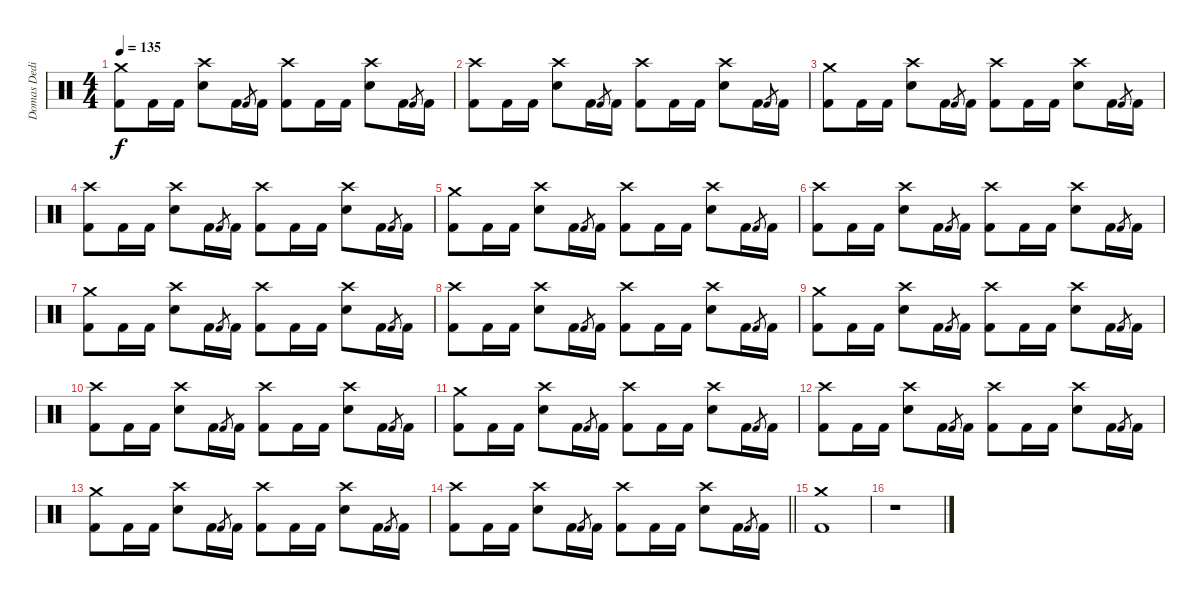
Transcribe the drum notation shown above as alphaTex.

\track ("Domas Dedinas" "Domas Dedi") {instrument percussion}
\staff {score}
\articulation defaults
\ts (4 4)
\tempo 135
\clef neutral
\ks c
("Crash medium (hit)" "Kick (hit) 2").8{dy f} "Kick (hit) 2".16 "Kick (hit) 2".16 ("Crash high (hit)" "Snare (hit) 2").8 "Kick (hit) 2".16 "Kick (hit) 2".8{gr} "Kick (hit) 2".16 ("Crash high (hit)" "Kick (hit) 2").8 "Kick (hit) 2".16 "Kick (hit) 2".16 ("Crash high (hit)" "Snare (hit) 2").8 "Kick (hit) 2".16 "Kick (hit) 2".8{gr} "Kick (hit) 2".16 |
("Crash high (hit)" "Kick (hit) 2").8 "Kick (hit) 2".16 "Kick (hit) 2".16 ("Crash high (hit)" "Snare (hit) 2").8 "Kick (hit) 2".16 "Kick (hit) 2".8{gr} "Kick (hit) 2".16 ("Crash high (hit)" "Kick (hit) 2").8 "Kick (hit) 2".16 "Kick (hit) 2".16 ("Crash high (hit)" "Snare (hit) 2").8 "Kick (hit) 2".16 "Kick (hit) 2".8{gr} "Kick (hit) 2".16 |
("Crash medium (hit)" "Kick (hit) 2").8 "Kick (hit) 2".16 "Kick (hit) 2".16 ("Crash high (hit)" "Snare (hit) 2").8 "Kick (hit) 2".16 "Kick (hit) 2".8{gr} "Kick (hit) 2".16 ("Crash high (hit)" "Kick (hit) 2").8 "Kick (hit) 2".16 "Kick (hit) 2".16 ("Crash high (hit)" "Snare (hit) 2").8 "Kick (hit) 2".16 "Kick (hit) 2".8{gr} "Kick (hit) 2".16 |
("Crash high (hit)" "Kick (hit) 2").8 "Kick (hit) 2".16 "Kick (hit) 2".16 ("Crash high (hit)" "Snare (hit) 2").8 "Kick (hit) 2".16 "Kick (hit) 2".8{gr} "Kick (hit) 2".16 ("Crash high (hit)" "Kick (hit) 2").8 "Kick (hit) 2".16 "Kick (hit) 2".16 ("Crash high (hit)" "Snare (hit) 2").8 "Kick (hit) 2".16 "Kick (hit) 2".8{gr} "Kick (hit) 2".16 |
("Crash medium (hit)" "Kick (hit) 2").8 "Kick (hit) 2".16 "Kick (hit) 2".16 ("Crash high (hit)" "Snare (hit) 2").8 "Kick (hit) 2".16 "Kick (hit) 2".8{gr} "Kick (hit) 2".16 ("Crash high (hit)" "Kick (hit) 2").8 "Kick (hit) 2".16 "Kick (hit) 2".16 ("Crash high (hit)" "Snare (hit) 2").8 "Kick (hit) 2".16 "Kick (hit) 2".8{gr} "Kick (hit) 2".16 |
("Crash high (hit)" "Kick (hit) 2").8 "Kick (hit) 2".16 "Kick (hit) 2".16 ("Crash high (hit)" "Snare (hit) 2").8 "Kick (hit) 2".16 "Kick (hit) 2".8{gr} "Kick (hit) 2".16 ("Crash high (hit)" "Kick (hit) 2").8 "Kick (hit) 2".16 "Kick (hit) 2".16 ("Crash high (hit)" "Snare (hit) 2").8 "Kick (hit) 2".16 "Kick (hit) 2".8{gr} "Kick (hit) 2".16 |
("Crash medium (hit)" "Kick (hit) 2").8 "Kick (hit) 2".16 "Kick (hit) 2".16 ("Crash high (hit)" "Snare (hit) 2").8 "Kick (hit) 2".16 "Kick (hit) 2".8{gr} "Kick (hit) 2".16 ("Crash high (hit)" "Kick (hit) 2").8 "Kick (hit) 2".16 "Kick (hit) 2".16 ("Crash high (hit)" "Snare (hit) 2").8 "Kick (hit) 2".16 "Kick (hit) 2".8{gr} "Kick (hit) 2".16 |
("Crash high (hit)" "Kick (hit) 2").8 "Kick (hit) 2".16 "Kick (hit) 2".16 ("Crash high (hit)" "Snare (hit) 2").8 "Kick (hit) 2".16 "Kick (hit) 2".8{gr} "Kick (hit) 2".16 ("Crash high (hit)" "Kick (hit) 2").8 "Kick (hit) 2".16 "Kick (hit) 2".16 ("Crash high (hit)" "Snare (hit) 2").8 "Kick (hit) 2".16 "Kick (hit) 2".8{gr} "Kick (hit) 2".16 |
("Crash medium (hit)" "Kick (hit) 2").8 "Kick (hit) 2".16 "Kick (hit) 2".16 ("Crash high (hit)" "Snare (hit) 2").8 "Kick (hit) 2".16 "Kick (hit) 2".8{gr} "Kick (hit) 2".16 ("Crash high (hit)" "Kick (hit) 2").8 "Kick (hit) 2".16 "Kick (hit) 2".16 ("Crash high (hit)" "Snare (hit) 2").8 "Kick (hit) 2".16 "Kick (hit) 2".8{gr} "Kick (hit) 2".16 |
("Crash high (hit)" "Kick (hit) 2").8 "Kick (hit) 2".16 "Kick (hit) 2".16 ("Crash high (hit)" "Snare (hit) 2").8 "Kick (hit) 2".16 "Kick (hit) 2".8{gr} "Kick (hit) 2".16 ("Crash high (hit)" "Kick (hit) 2").8 "Kick (hit) 2".16 "Kick (hit) 2".16 ("Crash high (hit)" "Snare (hit) 2").8 "Kick (hit) 2".16 "Kick (hit) 2".8{gr} "Kick (hit) 2".16 |
("Crash medium (hit)" "Kick (hit) 2").8 "Kick (hit) 2".16 "Kick (hit) 2".16 ("Crash high (hit)" "Snare (hit) 2").8 "Kick (hit) 2".16 "Kick (hit) 2".8{gr} "Kick (hit) 2".16 ("Crash high (hit)" "Kick (hit) 2").8 "Kick (hit) 2".16 "Kick (hit) 2".16 ("Crash high (hit)" "Snare (hit) 2").8 "Kick (hit) 2".16 "Kick (hit) 2".8{gr} "Kick (hit) 2".16 |
("Crash high (hit)" "Kick (hit) 2").8 "Kick (hit) 2".16 "Kick (hit) 2".16 ("Crash high (hit)" "Snare (hit) 2").8 "Kick (hit) 2".16 "Kick (hit) 2".8{gr} "Kick (hit) 2".16 ("Crash high (hit)" "Kick (hit) 2").8 "Kick (hit) 2".16 "Kick (hit) 2".16 ("Crash high (hit)" "Snare (hit) 2").8 "Kick (hit) 2".16 "Kick (hit) 2".8{gr} "Kick (hit) 2".16 |
("Crash medium (hit)" "Kick (hit) 2").8 "Kick (hit) 2".16 "Kick (hit) 2".16 ("Crash high (hit)" "Snare (hit) 2").8 "Kick (hit) 2".16 "Kick (hit) 2".8{gr} "Kick (hit) 2".16 ("Crash high (hit)" "Kick (hit) 2").8 "Kick (hit) 2".16 "Kick (hit) 2".16 ("Crash high (hit)" "Snare (hit) 2").8 "Kick (hit) 2".16 "Kick (hit) 2".8{gr} "Kick (hit) 2".16 |
\barLineRight lightlight
("Crash high (hit)" "Kick (hit) 2").8 "Kick (hit) 2".16 "Kick (hit) 2".16 ("Crash high (hit)" "Snare (hit) 2").8 "Kick (hit) 2".16 "Kick (hit) 2".8{gr} "Kick (hit) 2".16 ("Crash high (hit)" "Kick (hit) 2").8 "Kick (hit) 2".16 "Kick (hit) 2".16 ("Crash high (hit)" "Snare (hit) 2").8 "Kick (hit) 2".16 "Kick (hit) 2".8{gr} "Kick (hit) 2".16 |
("Crash medium (hit)" "Kick (hit) 2").1 |
r.1
